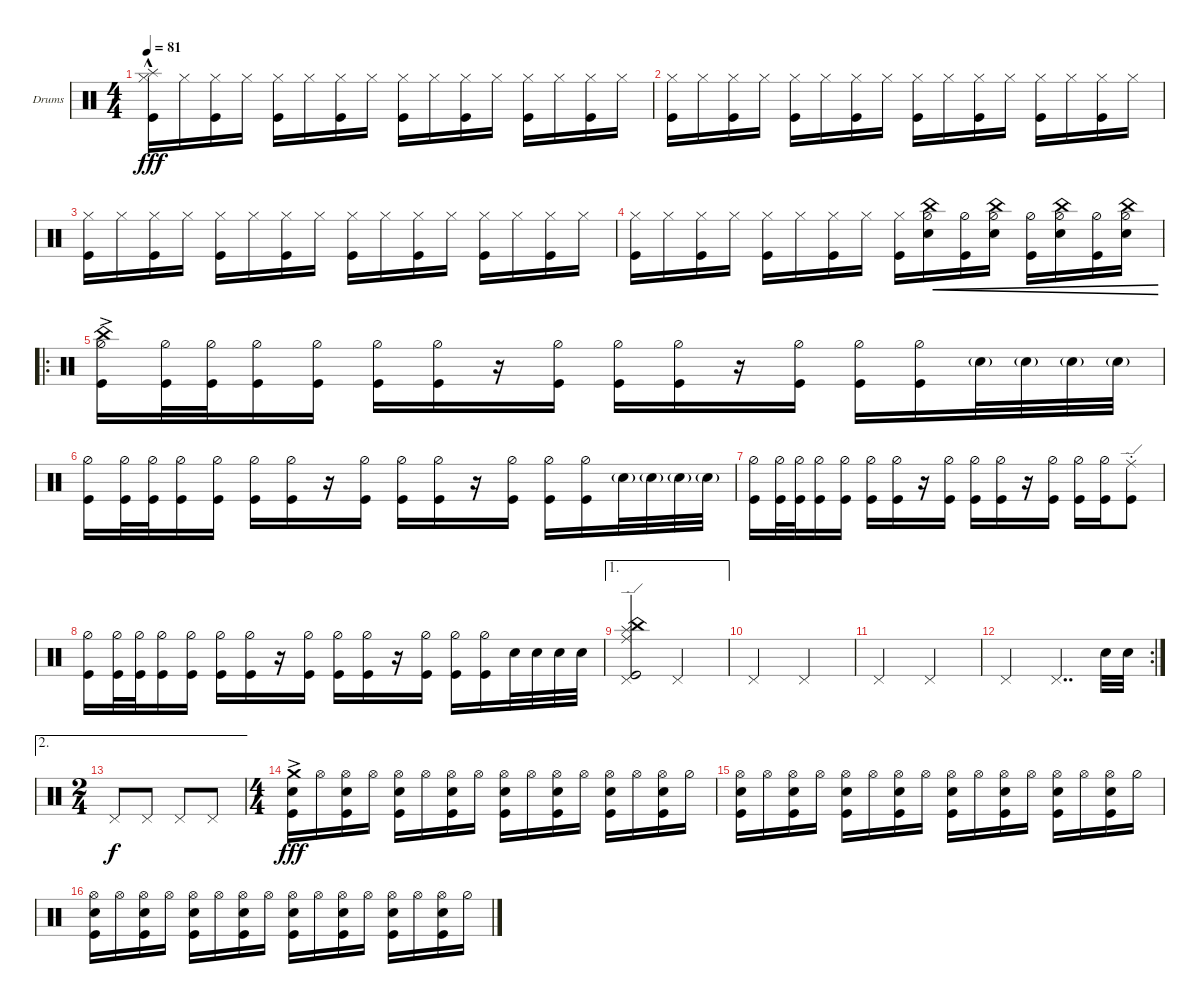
\bracketExtendMode groupsimilarinstruments
\firstSystemTrackNameOrientation horizontal
\otherSystemsTrackNameOrientation horizontal
\track ("Drumkit" "Drums") {instrument percussion}
\staff {score}
\articulation defaults
\ts (4 4)
\tempo 81
\clef neutral
\ks c
("Hi-Hat (closed)" "Kick (hit)" "Splash (hit)"{hac}).16{dy fff} "Hi-Hat (closed)".16 ("Hi-Hat (closed)" "Kick (hit)").16 "Hi-Hat (closed)".16 ("Hi-Hat (closed)" "Kick (hit)").16 "Hi-Hat (closed)".16 ("Hi-Hat (closed)" "Kick (hit)").16 "Hi-Hat (closed)".16 ("Hi-Hat (closed)" "Kick (hit)").16 "Hi-Hat (closed)".16 ("Hi-Hat (closed)" "Kick (hit)").16 "Hi-Hat (closed)".16 ("Hi-Hat (closed)" "Kick (hit)").16 "Hi-Hat (closed)".16 ("Hi-Hat (closed)" "Kick (hit)").16 "Hi-Hat (closed)".16 |
("Hi-Hat (closed)" "Kick (hit)").16 "Hi-Hat (closed)".16 ("Hi-Hat (closed)" "Kick (hit)").16 "Hi-Hat (closed)".16 ("Hi-Hat (closed)" "Kick (hit)").16 "Hi-Hat (closed)".16 ("Hi-Hat (closed)" "Kick (hit)").16 "Hi-Hat (closed)".16 ("Hi-Hat (closed)" "Kick (hit)").16 "Hi-Hat (closed)".16 ("Hi-Hat (closed)" "Kick (hit)").16 "Hi-Hat (closed)".16 ("Hi-Hat (closed)" "Kick (hit)").16 "Hi-Hat (closed)".16 ("Hi-Hat (closed)" "Kick (hit)").16 "Hi-Hat (closed)".16 |
("Hi-Hat (closed)" "Kick (hit)").16 "Hi-Hat (closed)".16 ("Hi-Hat (closed)" "Kick (hit)").16 "Hi-Hat (closed)".16 ("Hi-Hat (closed)" "Kick (hit)").16 "Hi-Hat (closed)".16 ("Hi-Hat (closed)" "Kick (hit)").16 "Hi-Hat (closed)".16 ("Hi-Hat (closed)" "Kick (hit)").16 "Hi-Hat (closed)".16 ("Hi-Hat (closed)" "Kick (hit)").16 "Hi-Hat (closed)".16 ("Hi-Hat (closed)" "Kick (hit)").16 "Hi-Hat (closed)".16 ("Hi-Hat (closed)" "Kick (hit)").16 "Hi-Hat (closed)".16 |
("Hi-Hat (closed)" "Kick (hit)").16 "Hi-Hat (closed)".16 ("Hi-Hat (closed)" "Kick (hit)").16 "Hi-Hat (closed)".16 ("Hi-Hat (closed)" "Kick (hit)").16 "Hi-Hat (closed)".16 ("Hi-Hat (closed)" "Kick (hit)").16 "Hi-Hat (closed)".16 ("Hi-Hat (closed)" "Kick (hit)").16 ("Hi-Hat (half)" "Snare (hit) 2" "China (hit)").16{cre} ("Hi-Hat (half)" "Kick (hit)").16{cre} ("Hi-Hat (half)" "Snare (hit) 2" "China (hit)").16{cre} ("Hi-Hat (half)" "Kick (hit)").16{cre} ("Hi-Hat (half)" "Snare (hit) 2" "China (hit)").16{cre} ("Hi-Hat (half)" "Kick (hit)").16{cre} ("Hi-Hat (half)" "Snare (hit) 2" "China (hit)").16{cre} |
\ro
("Kick (hit)" "China (hit)"{ac} "Hi-Hat (half)").16 ("Kick (hit)" "Hi-Hat (half)").32 ("Kick (hit)" "Hi-Hat (half)").32 ("Kick (hit)" "Hi-Hat (half)").16 ("Kick (hit)" "Hi-Hat (half)").16 ("Kick (hit)" "Hi-Hat (half)").16 ("Kick (hit)" "Hi-Hat (half)").16 r.16 ("Kick (hit)" "Hi-Hat (half)").16 ("Kick (hit)" "Hi-Hat (half)").16 ("Kick (hit)" "Hi-Hat (half)").16 r.16 ("Kick (hit)" "Hi-Hat (half)").16 ("Kick (hit)" "Hi-Hat (half)").16 ("Kick (hit)" "Hi-Hat (half)").16 "Snare (hit) 2"{g}.32 "Snare (hit) 2"{g}.32 "Snare (hit) 2"{g}.32 "Snare (hit) 2"{g}.32 |
("Kick (hit)" "Hi-Hat (half)").16 ("Kick (hit)" "Hi-Hat (half)").32 ("Kick (hit)" "Hi-Hat (half)").32 ("Kick (hit)" "Hi-Hat (half)").16 ("Kick (hit)" "Hi-Hat (half)").16 ("Kick (hit)" "Hi-Hat (half)").16 ("Kick (hit)" "Hi-Hat (half)").16 r.16 ("Kick (hit)" "Hi-Hat (half)").16 ("Kick (hit)" "Hi-Hat (half)").16 ("Kick (hit)" "Hi-Hat (half)").16 r.16 ("Kick (hit)" "Hi-Hat (half)").16 ("Kick (hit)" "Hi-Hat (half)").16 ("Kick (hit)" "Hi-Hat (half)").16 "Snare (hit) 2"{g}.32 "Snare (hit) 2"{g}.32 "Snare (hit) 2"{g}.32 "Snare (hit) 2"{g}.32 |
("Kick (hit)" "Hi-Hat (half)").16 ("Kick (hit)" "Hi-Hat (half)").32 ("Kick (hit)" "Hi-Hat (half)").32 ("Kick (hit)" "Hi-Hat (half)").16 ("Kick (hit)" "Hi-Hat (half)").16 ("Kick (hit)" "Hi-Hat (half)").16 ("Kick (hit)" "Hi-Hat (half)").16 r.16 ("Kick (hit)" "Hi-Hat (half)").16 ("Kick (hit)" "Hi-Hat (half)").16 ("Kick (hit)" "Hi-Hat (half)").16 r.16 ("Kick (hit)" "Hi-Hat (half)").16 ("Kick (hit)" "Hi-Hat (half)").16 ("Kick (hit)" "Hi-Hat (half)").16 ("Ride (edge)"{st} "Kick (hit)").8 |
("Kick (hit)" "Hi-Hat (half)").16 ("Kick (hit)" "Hi-Hat (half)").32 ("Kick (hit)" "Hi-Hat (half)").32 ("Kick (hit)" "Hi-Hat (half)").16 ("Kick (hit)" "Hi-Hat (half)").16 ("Kick (hit)" "Hi-Hat (half)").16 ("Kick (hit)" "Hi-Hat (half)").16 r.16 ("Kick (hit)" "Hi-Hat (half)").16 ("Kick (hit)" "Hi-Hat (half)").16 ("Kick (hit)" "Hi-Hat (half)").16 r.16 ("Kick (hit)" "Hi-Hat (half)").16 ("Kick (hit)" "Hi-Hat (half)").16 ("Kick (hit)" "Hi-Hat (half)").16 "Snare (hit) 2".32 "Snare (hit) 2".32 "Snare (hit) 2".32 "Snare (hit) 2".32 |
\ae 1
("Kick (hit)" "Pedal Hi-Hat (hit)" "China (hit)" "Splash (hit)" "Ride (edge)").2 "Pedal Hi-Hat (hit)".2 |
"Pedal Hi-Hat (hit)".2 "Pedal Hi-Hat (hit)".2 |
"Pedal Hi-Hat (hit)".2 "Pedal Hi-Hat (hit)".2 |
\rc 2 "Pedal Hi-Hat (hit)".2 "Pedal Hi-Hat (hit)".4{dd} "Snare (hit) 2".32 "Snare (hit) 2".32
|
\ae 2
\ts (2 4)
"Pedal Hi-Hat (hit)".8{dy f} "Pedal Hi-Hat (hit)".8 "Pedal Hi-Hat (hit)".8 "Pedal Hi-Hat (hit)".8 |
\ts (4 4)
("Crash medium (hit)"{ac} "Kick (hit)" "Snare (hit) 2").16{dy fff} "Hi-Hat (open)".16 ("Hi-Hat (open)" "Kick (hit)" "Snare (hit) 2").16 "Hi-Hat (open)".16 ("Hi-Hat (open)" "Kick (hit)" "Snare (hit) 2").16 "Hi-Hat (open)".16 ("Hi-Hat (open)" "Kick (hit)" "Snare (hit) 2").16 "Hi-Hat (open)".16 ("Hi-Hat (open)" "Kick (hit)" "Snare (hit) 2").16 "Hi-Hat (open)".16 ("Hi-Hat (open)" "Kick (hit)" "Snare (hit) 2").16 "Hi-Hat (open)".16 ("Hi-Hat (open)" "Kick (hit)" "Snare (hit) 2").16 "Hi-Hat (open)".16 ("Hi-Hat (open)" "Kick (hit)" "Snare (hit) 2").16 "Hi-Hat (half)".16 |
("Hi-Hat (open)" "Kick (hit)" "Snare (hit) 2").16 "Hi-Hat (open)".16 ("Hi-Hat (open)" "Kick (hit)" "Snare (hit) 2").16 "Hi-Hat (open)".16 ("Hi-Hat (open)" "Kick (hit)" "Snare (hit) 2").16 "Hi-Hat (open)".16 ("Hi-Hat (open)" "Kick (hit)" "Snare (hit) 2").16 "Hi-Hat (open)".16 ("Hi-Hat (open)" "Kick (hit)" "Snare (hit) 2").16 "Hi-Hat (open)".16 ("Hi-Hat (open)" "Kick (hit)" "Snare (hit) 2").16 "Hi-Hat (open)".16 ("Hi-Hat (open)" "Kick (hit)" "Snare (hit) 2").16 "Hi-Hat (open)".16 ("Hi-Hat (open)" "Kick (hit)" "Snare (hit) 2").16 "Hi-Hat (half)".16 |
("Hi-Hat (open)" "Kick (hit)" "Snare (hit) 2").16 "Hi-Hat (open)".16 ("Hi-Hat (open)" "Kick (hit)" "Snare (hit) 2").16 "Hi-Hat (open)".16 ("Hi-Hat (open)" "Kick (hit)" "Snare (hit) 2").16 "Hi-Hat (open)".16 ("Hi-Hat (open)" "Kick (hit)" "Snare (hit) 2").16 "Hi-Hat (open)".16 ("Hi-Hat (open)" "Kick (hit)" "Snare (hit) 2").16 "Hi-Hat (open)".16 ("Hi-Hat (open)" "Kick (hit)" "Snare (hit) 2").16 "Hi-Hat (open)".16 ("Hi-Hat (open)" "Kick (hit)" "Snare (hit) 2").16 "Hi-Hat (open)".16 ("Hi-Hat (open)" "Kick (hit)" "Snare (hit) 2").16 "Hi-Hat (half)".16
